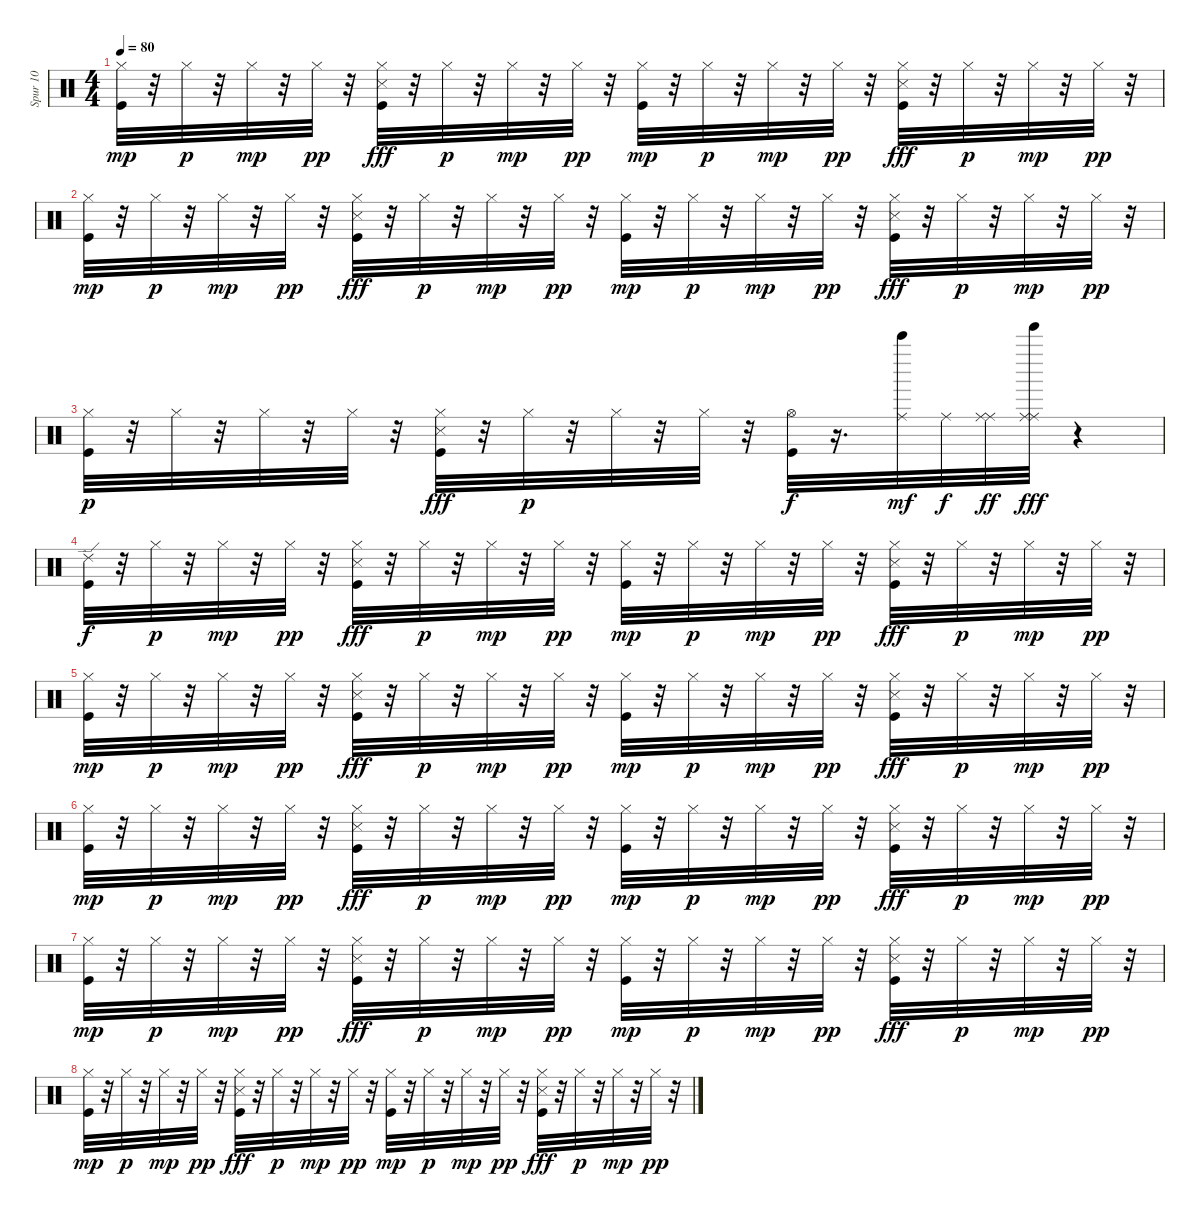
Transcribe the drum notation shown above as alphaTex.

\track ("Spur 10" "Spur 10") {instrument percussion}
\staff {score}
\articulation defaults
\ts (4 4)
\tempo 80
\clef neutral
\ks c
("Hi-Hat (closed)" "Kick (hit)").32{dy mp} r.32 "Hi-Hat (closed)".32{dy p} r.32 "Hi-Hat (closed)".32{dy mp} r.32 "Hi-Hat (closed)".32{dy pp} r.32 ("Hi-Hat (closed)" "Snare (side stick) 3" "Kick (hit)").32{dy fff} r.32 "Hi-Hat (closed)".32{dy p} r.32 "Hi-Hat (closed)".32{dy mp} r.32 "Hi-Hat (closed)".32{dy pp} r.32 ("Hi-Hat (closed)" "Kick (hit)").32{dy mp} r.32 "Hi-Hat (closed)".32{dy p} r.32 "Hi-Hat (closed)".32{dy mp} r.32 "Hi-Hat (closed)".32{dy pp} r.32 ("Hi-Hat (closed)" "Snare (side stick) 3" "Kick (hit)").32{dy fff} r.32 "Hi-Hat (closed)".32{dy p} r.32 "Hi-Hat (closed)".32{dy mp} r.32 "Hi-Hat (closed)".32{dy pp} r.32 |
("Hi-Hat (closed)" "Kick (hit)").32{dy mp} r.32 "Hi-Hat (closed)".32{dy p} r.32 "Hi-Hat (closed)".32{dy mp} r.32 "Hi-Hat (closed)".32{dy pp} r.32 ("Hi-Hat (closed)" "Snare (side stick) 3" "Kick (hit)").32{dy fff} r.32 "Hi-Hat (closed)".32{dy p} r.32 "Hi-Hat (closed)".32{dy mp} r.32 "Hi-Hat (closed)".32{dy pp} r.32 ("Hi-Hat (closed)" "Kick (hit)").32{dy mp} r.32 "Hi-Hat (closed)".32{dy p} r.32 "Hi-Hat (closed)".32{dy mp} r.32 "Hi-Hat (closed)".32{dy pp} r.32 ("Hi-Hat (closed)" "Snare (side stick) 3" "Kick (hit)").32{dy fff} r.32 "Hi-Hat (closed)".32{dy p} r.32 "Hi-Hat (closed)".32{dy mp} r.32 "Hi-Hat (closed)".32{dy pp} r.32 |
("Hi-Hat (closed)" "Kick (hit)").32{dy p} r.32 "Hi-Hat (closed)".32 r.32 "Hi-Hat (closed)".32 r.32 "Hi-Hat (closed)".32 r.32 ("Hi-Hat (closed)" "Snare (side stick) 3" "Kick (hit)").32{dy fff} r.32 "Hi-Hat (closed)".32{dy p} r.32 "Hi-Hat (closed)".32 r.32 "Hi-Hat (closed)".32 r.32 ("Hi-Hat (open)" "Kick (hit)").32{dy f} r.16{d} ("Bell Tree (hit)" "Ride (middle)").32{dy mf} "Ride (middle)".32{dy f} ("Ride (middle)" "Ride (middle)").32{dy ff} ("Ride (middle)" "Tinkle Bell (hit)" "Ride (middle)").32{dy fff} r.4 |
("Ride (edge) 2" "Kick (hit)").32{dy f} r.32 "Hi-Hat (closed)".32{dy p} r.32 "Hi-Hat (closed)".32{dy mp} r.32 "Hi-Hat (closed)".32{dy pp} r.32 ("Hi-Hat (closed)" "Snare (side stick) 3" "Kick (hit)").32{dy fff} r.32 "Hi-Hat (closed)".32{dy p} r.32 "Hi-Hat (closed)".32{dy mp} r.32 "Hi-Hat (closed)".32{dy pp} r.32 ("Hi-Hat (closed)" "Kick (hit)").32{dy mp} r.32 "Hi-Hat (closed)".32{dy p} r.32 "Hi-Hat (closed)".32{dy mp} r.32 "Hi-Hat (closed)".32{dy pp} r.32 ("Hi-Hat (closed)" "Snare (side stick) 3" "Kick (hit)").32{dy fff} r.32 "Hi-Hat (closed)".32{dy p} r.32 "Hi-Hat (closed)".32{dy mp} r.32 "Hi-Hat (closed)".32{dy pp} r.32 |
("Hi-Hat (closed)" "Kick (hit)").32{dy mp} r.32 "Hi-Hat (closed)".32{dy p} r.32 "Hi-Hat (closed)".32{dy mp} r.32 "Hi-Hat (closed)".32{dy pp} r.32 ("Hi-Hat (closed)" "Snare (side stick) 3" "Kick (hit)").32{dy fff} r.32 "Hi-Hat (closed)".32{dy p} r.32 "Hi-Hat (closed)".32{dy mp} r.32 "Hi-Hat (closed)".32{dy pp} r.32 ("Hi-Hat (closed)" "Kick (hit)").32{dy mp} r.32 "Hi-Hat (closed)".32{dy p} r.32 "Hi-Hat (closed)".32{dy mp} r.32 "Hi-Hat (closed)".32{dy pp} r.32 ("Hi-Hat (closed)" "Snare (side stick) 3" "Kick (hit)").32{dy fff} r.32 "Hi-Hat (closed)".32{dy p} r.32 "Hi-Hat (closed)".32{dy mp} r.32 "Hi-Hat (closed)".32{dy pp} r.32 |
("Hi-Hat (closed)" "Kick (hit)").32{dy mp} r.32 "Hi-Hat (closed)".32{dy p} r.32 "Hi-Hat (closed)".32{dy mp} r.32 "Hi-Hat (closed)".32{dy pp} r.32 ("Hi-Hat (closed)" "Snare (side stick) 3" "Kick (hit)").32{dy fff} r.32 "Hi-Hat (closed)".32{dy p} r.32 "Hi-Hat (closed)".32{dy mp} r.32 "Hi-Hat (closed)".32{dy pp} r.32 ("Hi-Hat (closed)" "Kick (hit)").32{dy mp} r.32 "Hi-Hat (closed)".32{dy p} r.32 "Hi-Hat (closed)".32{dy mp} r.32 "Hi-Hat (closed)".32{dy pp} r.32 ("Hi-Hat (closed)" "Snare (side stick) 3" "Kick (hit)").32{dy fff} r.32 "Hi-Hat (closed)".32{dy p} r.32 "Hi-Hat (closed)".32{dy mp} r.32 "Hi-Hat (closed)".32{dy pp} r.32 |
("Hi-Hat (closed)" "Kick (hit)").32{dy mp} r.32 "Hi-Hat (closed)".32{dy p} r.32 "Hi-Hat (closed)".32{dy mp} r.32 "Hi-Hat (closed)".32{dy pp} r.32 ("Hi-Hat (closed)" "Snare (side stick) 3" "Kick (hit)").32{dy fff} r.32 "Hi-Hat (closed)".32{dy p} r.32 "Hi-Hat (closed)".32{dy mp} r.32 "Hi-Hat (closed)".32{dy pp} r.32 ("Hi-Hat (closed)" "Kick (hit)").32{dy mp} r.32 "Hi-Hat (closed)".32{dy p} r.32 "Hi-Hat (closed)".32{dy mp} r.32 "Hi-Hat (closed)".32{dy pp} r.32 ("Hi-Hat (closed)" "Snare (side stick) 3" "Kick (hit)").32{dy fff} r.32 "Hi-Hat (closed)".32{dy p} r.32 "Hi-Hat (closed)".32{dy mp} r.32 "Hi-Hat (closed)".32{dy pp} r.32 |
("Hi-Hat (closed)" "Kick (hit)").32{dy mp} r.32 "Hi-Hat (closed)".32{dy p} r.32 "Hi-Hat (closed)".32{dy mp} r.32 "Hi-Hat (closed)".32{dy pp} r.32 ("Hi-Hat (closed)" "Snare (side stick) 3" "Kick (hit)").32{dy fff} r.32 "Hi-Hat (closed)".32{dy p} r.32 "Hi-Hat (closed)".32{dy mp} r.32 "Hi-Hat (closed)".32{dy pp} r.32 ("Hi-Hat (closed)" "Kick (hit)").32{dy mp} r.32 "Hi-Hat (closed)".32{dy p} r.32 "Hi-Hat (closed)".32{dy mp} r.32 "Hi-Hat (closed)".32{dy pp} r.32 ("Hi-Hat (closed)" "Snare (side stick) 3" "Kick (hit)").32{dy fff} r.32 "Hi-Hat (closed)".32{dy p} r.32 "Hi-Hat (closed)".32{dy mp} r.32 "Hi-Hat (closed)".32{dy pp} r.32
